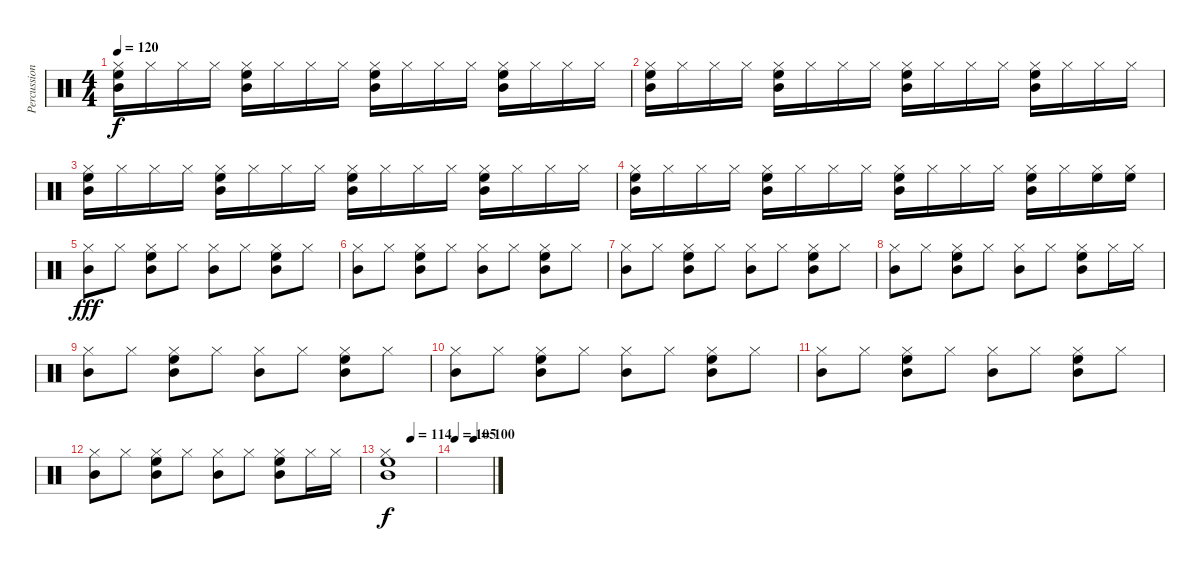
\track ("Percussion" "Percussion") {instrument percussion}
\staff {score}
\articulation defaults
\ts (4 4)
\tempo 120
\clef neutral
\ks c
("Hi-Hat (closed)" "Mid Tom (hit)" "High Floor Tom (hit)").16{dy f} "Hi-Hat (closed)".16 "Hi-Hat (closed)".16 "Hi-Hat (closed)".16 ("Hi-Hat (closed)" "Mid Tom (hit)" "High Floor Tom (hit)").16 "Hi-Hat (closed)".16 "Hi-Hat (closed)".16 "Hi-Hat (closed)".16 ("Hi-Hat (closed)" "Mid Tom (hit)" "High Floor Tom (hit)").16 "Hi-Hat (closed)".16 "Hi-Hat (closed)".16 "Hi-Hat (closed)".16 ("Hi-Hat (closed)" "Mid Tom (hit)" "High Floor Tom (hit)").16 "Hi-Hat (closed)".16 "Hi-Hat (closed)".16 "Hi-Hat (closed)".16 |
("Hi-Hat (closed)" "Mid Tom (hit)" "High Floor Tom (hit)").16 "Hi-Hat (closed)".16 "Hi-Hat (closed)".16 "Hi-Hat (closed)".16 ("Hi-Hat (closed)" "Mid Tom (hit)" "High Floor Tom (hit)").16 "Hi-Hat (closed)".16 "Hi-Hat (closed)".16 "Hi-Hat (closed)".16 ("Hi-Hat (closed)" "Mid Tom (hit)" "High Floor Tom (hit)").16 "Hi-Hat (closed)".16 "Hi-Hat (closed)".16 "Hi-Hat (closed)".16 ("Hi-Hat (closed)" "Mid Tom (hit)" "High Floor Tom (hit)").16 "Hi-Hat (closed)".16 "Hi-Hat (closed)".16 "Hi-Hat (closed)".16 |
("Hi-Hat (closed)" "Mid Tom (hit)" "High Floor Tom (hit)").16 "Hi-Hat (closed)".16 "Hi-Hat (closed)".16 "Hi-Hat (closed)".16 ("Hi-Hat (closed)" "Mid Tom (hit)" "High Floor Tom (hit)").16 "Hi-Hat (closed)".16 "Hi-Hat (closed)".16 "Hi-Hat (closed)".16 ("Hi-Hat (closed)" "Mid Tom (hit)" "High Floor Tom (hit)").16 "Hi-Hat (closed)".16 "Hi-Hat (closed)".16 "Hi-Hat (closed)".16 ("Hi-Hat (closed)" "Mid Tom (hit)" "High Floor Tom (hit)").16 "Hi-Hat (closed)".16 "Hi-Hat (closed)".16 "Hi-Hat (closed)".16 |
("Hi-Hat (closed)" "Mid Tom (hit)" "High Floor Tom (hit)").16 "Hi-Hat (closed)".16 "Hi-Hat (closed)".16 "Hi-Hat (closed)".16 ("Hi-Hat (closed)" "Mid Tom (hit)" "High Floor Tom (hit)").16 "Hi-Hat (closed)".16 "Hi-Hat (closed)".16 "Hi-Hat (closed)".16 ("Hi-Hat (closed)" "Mid Tom (hit)" "High Floor Tom (hit)").16 "Hi-Hat (closed)".16 "Hi-Hat (closed)".16 "Hi-Hat (closed)".16 ("Hi-Hat (closed)" "Mid Tom (hit)" "High Floor Tom (hit)").16 "Hi-Hat (closed)".16 ("Hi-Hat (closed)" "High Floor Tom (hit)").16 ("Hi-Hat (closed)" "High Floor Tom (hit)").16 |
("Hi-Hat (closed)" "Mid Tom (hit)").8{dy fff} "Hi-Hat (closed)".8 ("Hi-Hat (closed)" "Mid Tom (hit)" "High Floor Tom (hit)").8 "Hi-Hat (closed)".8 ("Hi-Hat (closed)" "Mid Tom (hit)").8 "Hi-Hat (closed)".8 ("Hi-Hat (closed)" "Mid Tom (hit)" "High Floor Tom (hit)").8 "Hi-Hat (closed)".8 |
("Hi-Hat (closed)" "Mid Tom (hit)").8 "Hi-Hat (closed)".8 ("Hi-Hat (closed)" "Mid Tom (hit)" "High Floor Tom (hit)").8 "Hi-Hat (closed)".8 ("Hi-Hat (closed)" "Mid Tom (hit)").8 "Hi-Hat (closed)".8 ("Hi-Hat (closed)" "Mid Tom (hit)" "High Floor Tom (hit)").8 "Hi-Hat (closed)".8 |
("Hi-Hat (closed)" "Mid Tom (hit)").8 "Hi-Hat (closed)".8 ("Hi-Hat (closed)" "Mid Tom (hit)" "High Floor Tom (hit)").8 "Hi-Hat (closed)".8 ("Hi-Hat (closed)" "Mid Tom (hit)").8 "Hi-Hat (closed)".8 ("Hi-Hat (closed)" "Mid Tom (hit)" "High Floor Tom (hit)").8 "Hi-Hat (closed)".8 |
("Hi-Hat (closed)" "Mid Tom (hit)").8 "Hi-Hat (closed)".8 ("Hi-Hat (closed)" "Mid Tom (hit)" "High Floor Tom (hit)").8 "Hi-Hat (closed)".8 ("Hi-Hat (closed)" "Mid Tom (hit)").8 "Hi-Hat (closed)".8 ("Hi-Hat (closed)" "Mid Tom (hit)" "High Floor Tom (hit)").8 "Hi-Hat (closed)".16 "Hi-Hat (closed)".16 |
("Hi-Hat (closed)" "Mid Tom (hit)").8 "Hi-Hat (closed)".8 ("Hi-Hat (closed)" "Mid Tom (hit)" "High Floor Tom (hit)").8 "Hi-Hat (closed)".8 ("Hi-Hat (closed)" "Mid Tom (hit)").8 "Hi-Hat (closed)".8 ("Hi-Hat (closed)" "Mid Tom (hit)" "High Floor Tom (hit)").8 "Hi-Hat (closed)".8 |
("Hi-Hat (closed)" "Mid Tom (hit)").8 "Hi-Hat (closed)".8 ("Hi-Hat (closed)" "Mid Tom (hit)" "High Floor Tom (hit)").8 "Hi-Hat (closed)".8 ("Hi-Hat (closed)" "Mid Tom (hit)").8 "Hi-Hat (closed)".8 ("Hi-Hat (closed)" "Mid Tom (hit)" "High Floor Tom (hit)").8 "Hi-Hat (closed)".8 |
("Hi-Hat (closed)" "Mid Tom (hit)").8 "Hi-Hat (closed)".8 ("Hi-Hat (closed)" "Mid Tom (hit)" "High Floor Tom (hit)").8 "Hi-Hat (closed)".8 ("Hi-Hat (closed)" "Mid Tom (hit)").8 "Hi-Hat (closed)".8 ("Hi-Hat (closed)" "Mid Tom (hit)" "High Floor Tom (hit)").8 "Hi-Hat (closed)".8 |
("Hi-Hat (closed)" "Mid Tom (hit)").8 "Hi-Hat (closed)".8 ("Hi-Hat (closed)" "Mid Tom (hit)" "High Floor Tom (hit)").8 "Hi-Hat (closed)".8 ("Hi-Hat (closed)" "Mid Tom (hit)").8 "Hi-Hat (closed)".8 ("Hi-Hat (closed)" "Mid Tom (hit)" "High Floor Tom (hit)").8 "Hi-Hat (closed)".16 "Hi-Hat (closed)".16 |
\tempo (114 0.5)
("Hi-Hat (closed)" "Mid Tom (hit)" "High Floor Tom (hit)").1{dy f} |
\tempo 105
\tempo (100 0.5)
